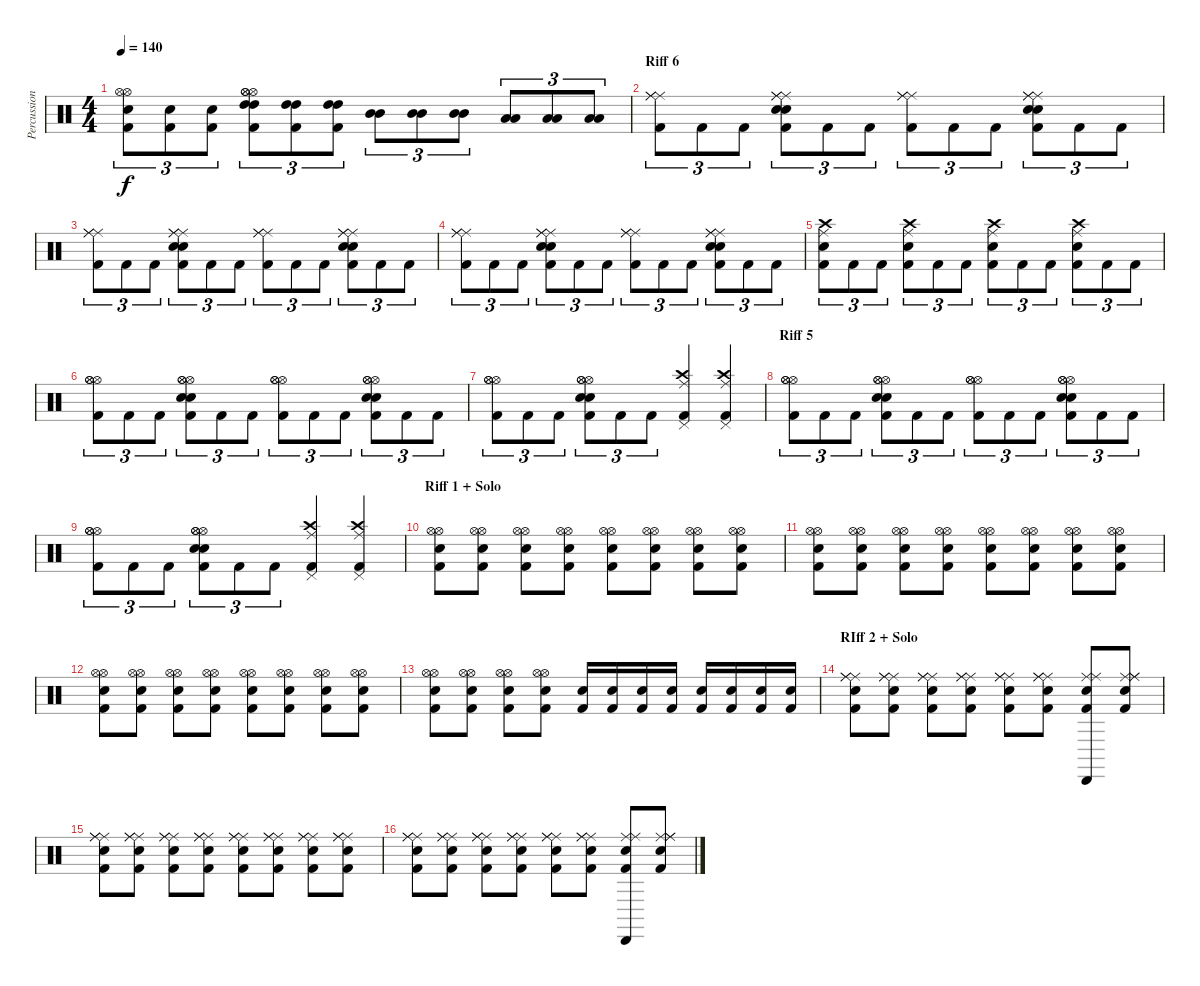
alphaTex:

\track ("Percussion" "Percussion") {instrument percussion}
\staff {score}
\articulation defaults
\ts (4 4)
\tempo 140
\clef neutral
\ks c
("Hi-Hat (open)" "Hi-Hat (open)" "Electric Snare (hit)" "Kick (hit) 2").8{tu (3 2) dy f} ("Electric Snare (hit)" "Kick (hit) 2").8{tu (3 2)} ("Electric Snare (hit)" "Kick (hit) 2").8{tu (3 2)} ("Hi-Hat (open)" "Hi-Hat (open)" "Hi-Hat (open)" "High Tom (hit)" "High Tom (hit)" "Kick (hit) 2").8{tu (3 2)} ("High Tom (hit)" "High Tom (hit)" "Kick (hit) 2").8{tu (3 2)} ("High Tom (hit)" "High Tom (hit)" "Kick (hit) 2").8{tu (3 2)} ("Mid Tom (hit)" "Mid Tom (hit)").8{tu (3 2)} ("Mid Tom (hit)" "Mid Tom (hit)").8{tu (3 2)} ("Mid Tom (hit)" "Mid Tom (hit)").8{tu (3 2)} ("Low Tom (hit)" "Low Tom (hit)").8{tu (3 2)} ("Low Tom (hit)" "Low Tom (hit)").8{tu (3 2)} ("Low Tom (hit)" "Low Tom (hit)").8{tu (3 2)} |
\section ("" "Riff 6")
("Ride (middle)" "Ride (middle)" "Ride (middle)" "Kick (hit) 2").8{tu (3 2)} "Kick (hit) 2".8{tu (3 2)} "Kick (hit) 2".8{tu (3 2)} ("Ride (middle)" "Ride (middle)" "Ride (middle)" "Electric Snare (hit)" "Electric Snare (hit)" "Kick (hit) 2").8{tu (3 2)} "Kick (hit) 2".8{tu (3 2)} "Kick (hit) 2".8{tu (3 2)} ("Ride (middle)" "Ride (middle)" "Ride (middle)" "Kick (hit) 2").8{tu (3 2)} "Kick (hit) 2".8{tu (3 2)} "Kick (hit) 2".8{tu (3 2)} ("Ride (middle)" "Ride (middle)" "Ride (middle)" "Electric Snare (hit)" "Electric Snare (hit)" "Kick (hit) 2").8{tu (3 2)} "Kick (hit) 2".8{tu (3 2)} "Kick (hit) 2".8{tu (3 2)} |
("Ride (middle)" "Ride (middle)" "Ride (middle)" "Kick (hit) 2").8{tu (3 2)} "Kick (hit) 2".8{tu (3 2)} "Kick (hit) 2".8{tu (3 2)} ("Ride (middle)" "Ride (middle)" "Ride (middle)" "Electric Snare (hit)" "Electric Snare (hit)" "Kick (hit) 2").8{tu (3 2)} "Kick (hit) 2".8{tu (3 2)} "Kick (hit) 2".8{tu (3 2)} ("Ride (middle)" "Ride (middle)" "Ride (middle)" "Kick (hit) 2").8{tu (3 2)} "Kick (hit) 2".8{tu (3 2)} "Kick (hit) 2".8{tu (3 2)} ("Ride (middle)" "Ride (middle)" "Ride (middle)" "Electric Snare (hit)" "Electric Snare (hit)" "Kick (hit) 2").8{tu (3 2)} "Kick (hit) 2".8{tu (3 2)} "Kick (hit) 2".8{tu (3 2)} |
("Ride (middle)" "Ride (middle)" "Ride (middle)" "Kick (hit) 2").8{tu (3 2)} "Kick (hit) 2".8{tu (3 2)} "Kick (hit) 2".8{tu (3 2)} ("Ride (middle)" "Ride (middle)" "Ride (middle)" "Electric Snare (hit)" "Electric Snare (hit)" "Kick (hit) 2").8{tu (3 2)} "Kick (hit) 2".8{tu (3 2)} "Kick (hit) 2".8{tu (3 2)} ("Ride (middle)" "Ride (middle)" "Ride (middle)" "Kick (hit) 2").8{tu (3 2)} "Kick (hit) 2".8{tu (3 2)} "Kick (hit) 2".8{tu (3 2)} ("Ride (middle)" "Ride (middle)" "Ride (middle)" "Electric Snare (hit)" "Electric Snare (hit)" "Kick (hit) 2").8{tu (3 2)} "Kick (hit) 2".8{tu (3 2)} "Kick (hit) 2".8{tu (3 2)} |
("Ride (middle)" "Crash high (hit)" "Electric Snare (hit)" "Kick (hit) 2").8{tu (3 2)} "Kick (hit) 2".8{tu (3 2)} "Kick (hit) 2".8{tu (3 2)} ("Ride (middle)" "Crash high (hit)" "Electric Snare (hit)" "Kick (hit) 2").8{tu (3 2)} "Kick (hit) 2".8{tu (3 2)} "Kick (hit) 2".8{tu (3 2)} ("Ride (middle)" "Crash high (hit)" "Electric Snare (hit)" "Kick (hit) 2").8{tu (3 2)} "Kick (hit) 2".8{tu (3 2)} "Kick (hit) 2".8{tu (3 2)} ("Ride (middle)" "Crash high (hit)" "Electric Snare (hit)" "Kick (hit) 2").8{tu (3 2)} "Kick (hit) 2".8{tu (3 2)} "Kick (hit) 2".8{tu (3 2)} |
("Hi-Hat (open)" "Hi-Hat (open)" "Hi-Hat (open)" "Kick (hit) 2").8{tu (3 2)} "Kick (hit) 2".8{tu (3 2)} "Kick (hit) 2".8{tu (3 2)} ("Hi-Hat (open)" "Hi-Hat (open)" "Hi-Hat (open)" "Electric Snare (hit)" "Electric Snare (hit)" "Kick (hit) 2").8{tu (3 2)} "Kick (hit) 2".8{tu (3 2)} "Kick (hit) 2".8{tu (3 2)} ("Hi-Hat (open)" "Hi-Hat (open)" "Hi-Hat (open)" "Kick (hit) 2").8{tu (3 2)} "Kick (hit) 2".8{tu (3 2)} "Kick (hit) 2".8{tu (3 2)} ("Hi-Hat (open)" "Hi-Hat (open)" "Hi-Hat (open)" "Electric Snare (hit)" "Electric Snare (hit)" "Kick (hit) 2").8{tu (3 2)} "Kick (hit) 2".8{tu (3 2)} "Kick (hit) 2".8{tu (3 2)} |
("Hi-Hat (open)" "Hi-Hat (open)" "Hi-Hat (open)" "Kick (hit) 2").8{tu (3 2)} "Kick (hit) 2".8{tu (3 2)} "Kick (hit) 2".8{tu (3 2)} ("Hi-Hat (open)" "Hi-Hat (open)" "Hi-Hat (open)" "Electric Snare (hit)" "Electric Snare (hit)" "Kick (hit) 2").8{tu (3 2)} "Kick (hit) 2".8{tu (3 2)} "Kick (hit) 2".8{tu (3 2)} ("Ride (middle)" "Crash high (hit)" "Pedal Hi-Hat (hit)" "Kick (hit) 2").4 ("Ride (middle)" "Crash high (hit)" "Pedal Hi-Hat (hit)" "Kick (hit) 2").4 |
\section ("" "Riff 5")
("Hi-Hat (open)" "Hi-Hat (open)" "Hi-Hat (open)" "Kick (hit) 2").8{tu (3 2)} "Kick (hit) 2".8{tu (3 2)} "Kick (hit) 2".8{tu (3 2)} ("Hi-Hat (open)" "Hi-Hat (open)" "Hi-Hat (open)" "Electric Snare (hit)" "Electric Snare (hit)" "Kick (hit) 2").8{tu (3 2)} "Kick (hit) 2".8{tu (3 2)} "Kick (hit) 2".8{tu (3 2)} ("Hi-Hat (open)" "Hi-Hat (open)" "Hi-Hat (open)" "Kick (hit) 2").8{tu (3 2)} "Kick (hit) 2".8{tu (3 2)} "Kick (hit) 2".8{tu (3 2)} ("Hi-Hat (open)" "Hi-Hat (open)" "Hi-Hat (open)" "Electric Snare (hit)" "Electric Snare (hit)" "Kick (hit) 2").8{tu (3 2)} "Kick (hit) 2".8{tu (3 2)} "Kick (hit) 2".8{tu (3 2)} |
("Hi-Hat (open)" "Hi-Hat (open)" "Hi-Hat (open)" "Kick (hit) 2").8{tu (3 2)} "Kick (hit) 2".8{tu (3 2)} "Kick (hit) 2".8{tu (3 2)} ("Hi-Hat (open)" "Hi-Hat (open)" "Hi-Hat (open)" "Electric Snare (hit)" "Electric Snare (hit)" "Kick (hit) 2").8{tu (3 2)} "Kick (hit) 2".8{tu (3 2)} "Kick (hit) 2".8{tu (3 2)} ("Ride (middle)" "Crash high (hit)" "Pedal Hi-Hat (hit)" "Kick (hit) 2").4 ("Ride (middle)" "Crash high (hit)" "Pedal Hi-Hat (hit)" "Kick (hit) 2").4 |
\section ("" "Riff 1 + Solo")
("Hi-Hat (open)" "Hi-Hat (open)" "Electric Snare (hit)" "Kick (hit) 2").8 ("Hi-Hat (open)" "Hi-Hat (open)" "Electric Snare (hit)" "Kick (hit) 2").8 ("Hi-Hat (open)" "Hi-Hat (open)" "Electric Snare (hit)" "Kick (hit) 2").8 ("Hi-Hat (open)" "Hi-Hat (open)" "Electric Snare (hit)" "Kick (hit) 2").8 ("Hi-Hat (open)" "Hi-Hat (open)" "Electric Snare (hit)" "Kick (hit) 2").8 ("Hi-Hat (open)" "Hi-Hat (open)" "Electric Snare (hit)" "Kick (hit) 2").8 ("Hi-Hat (open)" "Hi-Hat (open)" "Electric Snare (hit)" "Kick (hit) 2").8 ("Hi-Hat (open)" "Hi-Hat (open)" "Electric Snare (hit)" "Kick (hit) 2").8 |
("Hi-Hat (open)" "Hi-Hat (open)" "Electric Snare (hit)" "Kick (hit) 2").8 ("Hi-Hat (open)" "Hi-Hat (open)" "Electric Snare (hit)" "Kick (hit) 2").8 ("Hi-Hat (open)" "Hi-Hat (open)" "Electric Snare (hit)" "Kick (hit) 2").8 ("Hi-Hat (open)" "Hi-Hat (open)" "Electric Snare (hit)" "Kick (hit) 2").8 ("Hi-Hat (open)" "Hi-Hat (open)" "Electric Snare (hit)" "Kick (hit) 2").8 ("Hi-Hat (open)" "Hi-Hat (open)" "Electric Snare (hit)" "Kick (hit) 2").8 ("Hi-Hat (open)" "Hi-Hat (open)" "Electric Snare (hit)" "Kick (hit) 2").8 ("Hi-Hat (open)" "Hi-Hat (open)" "Electric Snare (hit)" "Kick (hit) 2").8 |
("Hi-Hat (open)" "Hi-Hat (open)" "Electric Snare (hit)" "Kick (hit) 2").8 ("Hi-Hat (open)" "Hi-Hat (open)" "Electric Snare (hit)" "Kick (hit) 2").8 ("Hi-Hat (open)" "Hi-Hat (open)" "Electric Snare (hit)" "Kick (hit) 2").8 ("Hi-Hat (open)" "Hi-Hat (open)" "Electric Snare (hit)" "Kick (hit) 2").8 ("Hi-Hat (open)" "Hi-Hat (open)" "Electric Snare (hit)" "Kick (hit) 2").8 ("Hi-Hat (open)" "Hi-Hat (open)" "Electric Snare (hit)" "Kick (hit) 2").8 ("Hi-Hat (open)" "Hi-Hat (open)" "Electric Snare (hit)" "Kick (hit) 2").8 ("Hi-Hat (open)" "Hi-Hat (open)" "Electric Snare (hit)" "Kick (hit) 2").8 |
("Hi-Hat (open)" "Hi-Hat (open)" "Electric Snare (hit)" "Kick (hit) 2").8 ("Hi-Hat (open)" "Hi-Hat (open)" "Electric Snare (hit)" "Kick (hit) 2").8 ("Hi-Hat (open)" "Hi-Hat (open)" "Electric Snare (hit)" "Kick (hit) 2").8 ("Hi-Hat (open)" "Hi-Hat (open)" "Electric Snare (hit)" "Kick (hit) 2").8 ("Electric Snare (hit)" "Kick (hit) 2").16 ("Electric Snare (hit)" "Kick (hit) 2").16 ("Electric Snare (hit)" "Kick (hit) 2").16 ("Electric Snare (hit)" "Kick (hit) 2").16 ("Electric Snare (hit)" "Kick (hit) 2").16 ("Electric Snare (hit)" "Kick (hit) 2").16 ("Electric Snare (hit)" "Kick (hit) 2").16 ("Electric Snare (hit)" "Kick (hit) 2").16 |
\section ("" "RIff 2 + Solo")
("Ride (middle)" "Ride (middle)" "Ride (middle)" "Electric Snare (hit)" "Kick (hit) 2").8 ("Ride (middle)" "Ride (middle)" "Ride (middle)" "Electric Snare (hit)" "Kick (hit) 2").8 ("Ride (middle)" "Ride (middle)" "Ride (middle)" "Electric Snare (hit)" "Kick (hit) 2").8 ("Ride (middle)" "Ride (middle)" "Ride (middle)" "Electric Snare (hit)" "Kick (hit) 2").8 ("Ride (middle)" "Ride (middle)" "Ride (middle)" "Electric Snare (hit)" "Kick (hit) 2").8 ("Ride (middle)" "Ride (middle)" "Ride (middle)" "Electric Snare (hit)" "Kick (hit) 2").8 ("Cabasa (hit)" "Ride (middle)" "Ride (middle)" "Electric Snare (hit)" "Kick (hit) 2").8 ("Ride (middle)" "Ride (middle)" "Ride (middle)" "Electric Snare (hit)" "Kick (hit) 2").8 |
("Ride (middle)" "Ride (middle)" "Ride (middle)" "Electric Snare (hit)" "Kick (hit) 2").8 ("Ride (middle)" "Ride (middle)" "Ride (middle)" "Electric Snare (hit)" "Kick (hit) 2").8 ("Ride (middle)" "Ride (middle)" "Ride (middle)" "Electric Snare (hit)" "Kick (hit) 2").8 ("Ride (middle)" "Ride (middle)" "Ride (middle)" "Electric Snare (hit)" "Kick (hit) 2").8 ("Ride (middle)" "Ride (middle)" "Ride (middle)" "Electric Snare (hit)" "Kick (hit) 2").8 ("Ride (middle)" "Ride (middle)" "Ride (middle)" "Electric Snare (hit)" "Kick (hit) 2").8 ("Ride (middle)" "Ride (middle)" "Ride (middle)" "Electric Snare (hit)" "Kick (hit) 2").8 ("Ride (middle)" "Ride (middle)" "Ride (middle)" "Electric Snare (hit)" "Kick (hit) 2").8 |
("Ride (middle)" "Ride (middle)" "Ride (middle)" "Electric Snare (hit)" "Kick (hit) 2").8 ("Ride (middle)" "Ride (middle)" "Ride (middle)" "Electric Snare (hit)" "Kick (hit) 2").8 ("Ride (middle)" "Ride (middle)" "Ride (middle)" "Electric Snare (hit)" "Kick (hit) 2").8 ("Ride (middle)" "Ride (middle)" "Ride (middle)" "Electric Snare (hit)" "Kick (hit) 2").8 ("Ride (middle)" "Ride (middle)" "Ride (middle)" "Electric Snare (hit)" "Kick (hit) 2").8 ("Ride (middle)" "Ride (middle)" "Ride (middle)" "Electric Snare (hit)" "Kick (hit) 2").8 ("Cabasa (hit)" "Ride (middle)" "Ride (middle)" "Electric Snare (hit)" "Kick (hit) 2").8 ("Ride (middle)" "Ride (middle)" "Ride (middle)" "Electric Snare (hit)" "Kick (hit) 2").8
